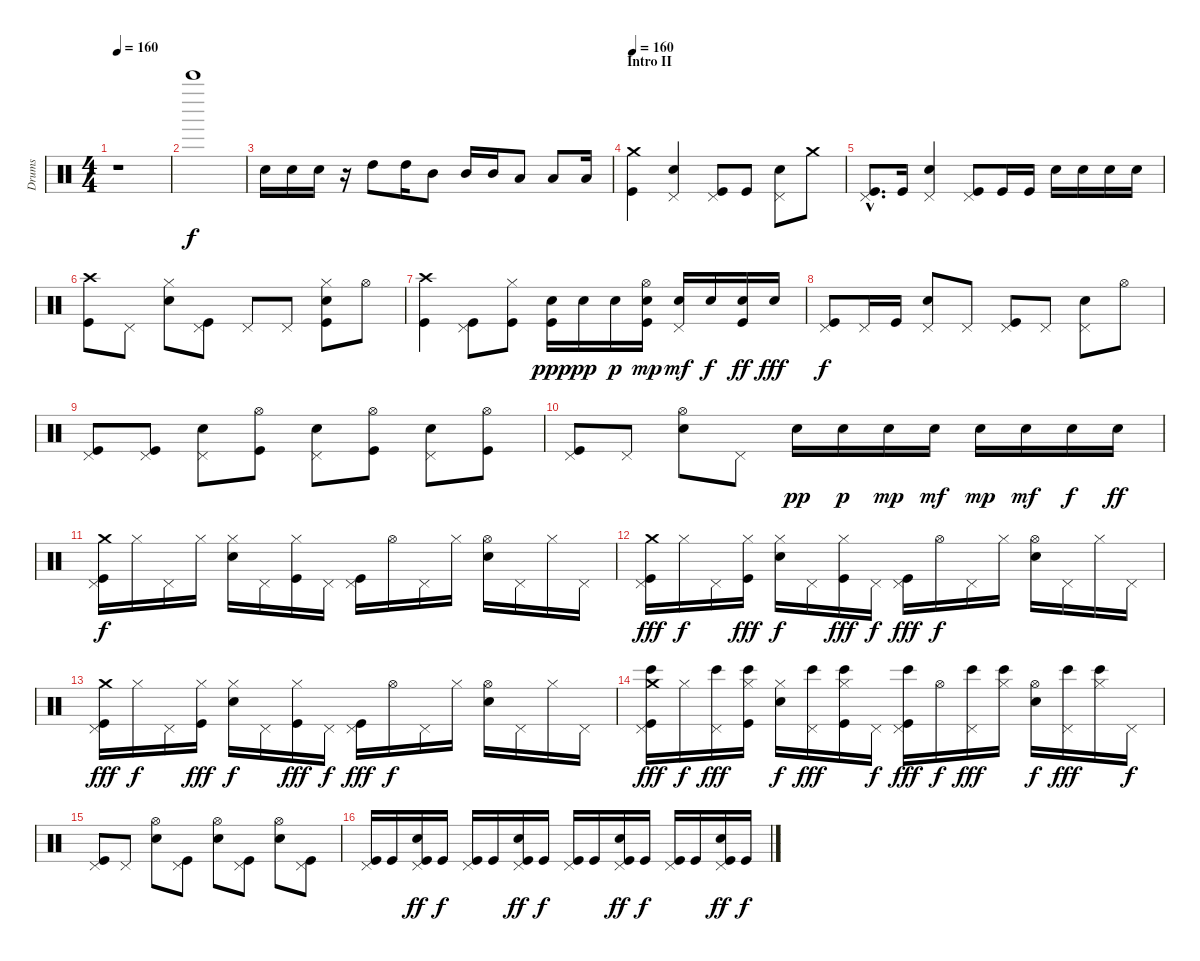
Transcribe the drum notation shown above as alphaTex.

\track ("Drums" "Drums") {instrument percussion}
\staff {score}
\articulation defaults
\ts (4 4)
\tempo 160
\clef neutral
\ks c
r.1{dy f} |
"Bell Tree (hit)".1 |
"Electric Snare (hit)".16 "Electric Snare (hit)".16 "Electric Snare (hit)".16 r.16 "High Tom (hit)".8 "High Tom (hit)".16 "Mid Tom (hit)".8 "Mid Tom (hit)".16 "Mid Tom (hit)".16 "Low Tom (hit)".8 "Low Tom (hit)".8 "Low Tom (hit)".16 |
\section ("" "Intro II")
\tempo 160
("Crash medium (hit)" "Kick (hit)").4 ("Pedal Hi-Hat (hit)" "Electric Snare (hit)").4 ("Pedal Hi-Hat (hit)" "Kick (hit)").8 "Kick (hit)".8 ("Pedal Hi-Hat (hit)" "Electric Snare (hit)").8 "Crash medium (hit)".8 |
("Pedal Hi-Hat (hit)"{hac} "Kick (hit)"{hac}).8{d} "Kick (hit)".16 ("Pedal Hi-Hat (hit)" "Electric Snare (hit)").4 ("Pedal Hi-Hat (hit)" "Kick (hit)").8 "Kick (hit)".16 "Kick (hit)".16 "Electric Snare (hit)".16 "Electric Snare (hit)".16 "Electric Snare (hit)".16 "Electric Snare (hit)".16 |
("Crash high (hit)" "Kick (hit)").8 "Pedal Hi-Hat (hit)".8 ("Hi-Hat (closed)" "Electric Snare (hit)").8 ("Pedal Hi-Hat (hit)" "Kick (hit)").8 "Pedal Hi-Hat (hit)".8 "Pedal Hi-Hat (hit)".8 ("Hi-Hat (closed)" "Electric Snare (hit)" "Kick (hit)").8 "Hi-Hat (open)".8 |
("Crash high (hit)" "Kick (hit)").4 ("Pedal Hi-Hat (hit)" "Kick (hit)").8 ("Hi-Hat (closed)" "Kick (hit)").8 ("Electric Snare (hit)" "Kick (hit)").16{dy ppp} "Electric Snare (hit)".16{dy pp} "Electric Snare (hit)".16{dy p} ("Hi-Hat (open)" "Electric Snare (hit)" "Kick (hit)").16{dy mp} ("Pedal Hi-Hat (hit)" "Electric Snare (hit)").16{dy mf} "Electric Snare (hit)".16{dy f} ("Electric Snare (hit)" "Kick (hit)").16{dy ff} "Electric Snare (hit)".16{dy fff} |
("Pedal Hi-Hat (hit)" "Kick (hit)").8{dy f} "Pedal Hi-Hat (hit)".16 "Kick (hit)".16 ("Pedal Hi-Hat (hit)" "Electric Snare (hit)").8 "Pedal Hi-Hat (hit)".8 ("Pedal Hi-Hat (hit)" "Kick (hit)").8 "Pedal Hi-Hat (hit)".8 ("Pedal Hi-Hat (hit)" "Electric Snare (hit)").8 "Hi-Hat (open)".8 |
("Pedal Hi-Hat (hit)" "Kick (hit)").8 ("Pedal Hi-Hat (hit)" "Kick (hit)").8 ("Pedal Hi-Hat (hit)" "Electric Snare (hit)").8 ("Hi-Hat (open)" "Kick (hit)").8 ("Pedal Hi-Hat (hit)" "Electric Snare (hit)").8 ("Hi-Hat (open)" "Kick (hit)").8 ("Pedal Hi-Hat (hit)" "Electric Snare (hit)").8 ("Hi-Hat (open)" "Kick (hit)").8 |
("Pedal Hi-Hat (hit)" "Kick (hit)").8 "Pedal Hi-Hat (hit)".8 ("Hi-Hat (open)" "Electric Snare (hit)").8 "Pedal Hi-Hat (hit)".8 "Electric Snare (hit)".16{dy pp} "Electric Snare (hit)".16{dy p} "Electric Snare (hit)".16{dy mp} "Electric Snare (hit)".16{dy mf} "Electric Snare (hit)".16{dy mp} "Electric Snare (hit)".16{dy mf} "Electric Snare (hit)".16{dy f} "Electric Snare (hit)".16{dy ff} |
("Crash medium (hit)" "Pedal Hi-Hat (hit)" "Kick (hit)").16{dy f} "Hi-Hat (closed)".16 "Pedal Hi-Hat (hit)".16 "Hi-Hat (closed)".16 ("Hi-Hat (closed)" "Electric Snare (hit)").16 "Pedal Hi-Hat (hit)".16 ("Hi-Hat (closed)" "Kick (hit)").16 "Pedal Hi-Hat (hit)".16 ("Pedal Hi-Hat (hit)" "Kick (hit)").16 "Hi-Hat (open)".16 "Pedal Hi-Hat (hit)".16 "Hi-Hat (closed)".16 ("Hi-Hat (open)" "Electric Snare (hit)").16 "Pedal Hi-Hat (hit)".16 "Hi-Hat (closed)".16 "Pedal Hi-Hat (hit)".16 |
("Crash medium (hit)" "Pedal Hi-Hat (hit)" "Kick (hit)").16{dy fff} "Hi-Hat (closed)".16{dy f} "Pedal Hi-Hat (hit)".16 ("Hi-Hat (closed)" "Kick (hit)").16{dy fff} ("Hi-Hat (closed)" "Electric Snare (hit)").16{dy f} "Pedal Hi-Hat (hit)".16 ("Hi-Hat (closed)" "Kick (hit)").16{dy fff} "Pedal Hi-Hat (hit)".16{dy f} ("Pedal Hi-Hat (hit)" "Kick (hit)").16{dy fff} "Hi-Hat (open)".16{dy f} "Pedal Hi-Hat (hit)".16 "Hi-Hat (closed)".16 ("Hi-Hat (open)" "Electric Snare (hit)").16 "Pedal Hi-Hat (hit)".16 "Hi-Hat (closed)".16 "Pedal Hi-Hat (hit)".16 |
("Crash medium (hit)" "Pedal Hi-Hat (hit)" "Kick (hit)").16{dy fff} "Hi-Hat (closed)".16{dy f} "Pedal Hi-Hat (hit)".16 ("Hi-Hat (closed)" "Kick (hit)").16{dy fff} ("Hi-Hat (closed)" "Electric Snare (hit)").16{dy f} "Pedal Hi-Hat (hit)".16 ("Hi-Hat (closed)" "Kick (hit)").16{dy fff} "Pedal Hi-Hat (hit)".16{dy f} ("Pedal Hi-Hat (hit)" "Kick (hit)").16{dy fff} "Hi-Hat (open)".16{dy f} "Pedal Hi-Hat (hit)".16 "Hi-Hat (closed)".16 ("Hi-Hat (open)" "Electric Snare (hit)").16 "Pedal Hi-Hat (hit)".16 "Hi-Hat (closed)".16 "Pedal Hi-Hat (hit)".16 |
("Crash medium (hit)" "Pedal Hi-Hat (hit)" "Bongo High (hit)" "Kick (hit)").16{dy fff} "Hi-Hat (closed)".16{dy f} ("Pedal Hi-Hat (hit)" "Bongo High (hit)").16{dy fff} ("Hi-Hat (closed)" "Bongo High (hit)" "Kick (hit)").16 ("Hi-Hat (closed)" "Electric Snare (hit)").16{dy f} ("Pedal Hi-Hat (hit)" "Bongo High (hit)").16{dy fff} ("Hi-Hat (closed)" "Bongo High (hit)" "Kick (hit)").16 "Pedal Hi-Hat (hit)".16{dy f} ("Pedal Hi-Hat (hit)" "Bongo High (hit)" "Kick (hit)").16{dy fff} "Hi-Hat (open)".16{dy f} ("Pedal Hi-Hat (hit)" "Bongo High (hit)").16{dy fff} ("Hi-Hat (closed)" "Bongo High (hit)").16 ("Hi-Hat (open)" "Electric Snare (hit)").16{dy f} ("Pedal Hi-Hat (hit)" "Bongo High (hit)").16{dy fff} ("Hi-Hat (closed)" "Bongo High (hit)").16 "Pedal Hi-Hat (hit)".16{dy f} |
("Pedal Hi-Hat (hit)" "Kick (hit)").8 "Pedal Hi-Hat (hit)".8 ("Hi-Hat (open)" "Electric Snare (hit)").8 ("Pedal Hi-Hat (hit)" "Kick (hit)").8 ("Hi-Hat (open)" "Electric Snare (hit)").8 ("Pedal Hi-Hat (hit)" "Kick (hit)").8 ("Hi-Hat (open)" "Electric Snare (hit)").8 ("Pedal Hi-Hat (hit)" "Kick (hit)").8 |
("Pedal Hi-Hat (hit)" "Kick (hit)").16 "Kick (hit)".16 ("Pedal Hi-Hat (hit)" "Electric Snare (hit)" "Kick (hit)").16{dy ff} "Kick (hit)".16{dy f} ("Pedal Hi-Hat (hit)" "Kick (hit)").16 "Kick (hit)".16 ("Pedal Hi-Hat (hit)" "Electric Snare (hit)" "Kick (hit)").16{dy ff} "Kick (hit)".16{dy f} ("Pedal Hi-Hat (hit)" "Kick (hit)").16 "Kick (hit)".16 ("Pedal Hi-Hat (hit)" "Electric Snare (hit)" "Kick (hit)").16{dy ff} "Kick (hit)".16{dy f} ("Pedal Hi-Hat (hit)" "Kick (hit)").16 "Kick (hit)".16 ("Pedal Hi-Hat (hit)" "Electric Snare (hit)" "Kick (hit)").16{dy ff} "Kick (hit)".16{dy f}
